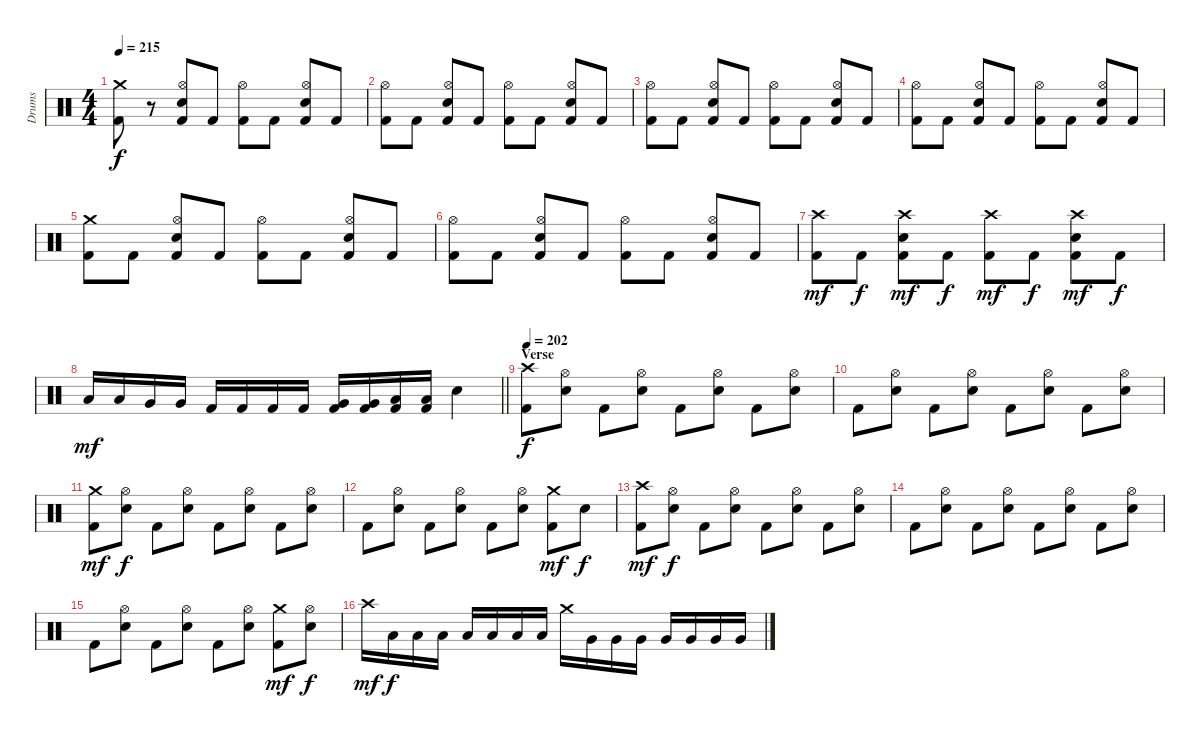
\track ("Drums" "Drums") {instrument percussion}
\staff {score}
\articulation defaults
\ts (4 4)
\tempo 215
\clef neutral
\ks c
("Crash medium (hit)" "Kick (hit) 2").8{dy f} r.8 ("Hi-Hat (open)" "Snare (hit) 2" "Kick (hit) 2").8 "Kick (hit) 2".8 ("Hi-Hat (open)" "Kick (hit) 2").8 "Kick (hit) 2".8 ("Hi-Hat (open)" "Snare (hit) 2" "Kick (hit) 2").8 "Kick (hit) 2".8 |
("Hi-Hat (open)" "Kick (hit) 2").8 "Kick (hit) 2".8 ("Hi-Hat (open)" "Snare (hit) 2" "Kick (hit) 2").8 "Kick (hit) 2".8 ("Hi-Hat (open)" "Kick (hit) 2").8 "Kick (hit) 2".8 ("Hi-Hat (open)" "Snare (hit) 2" "Kick (hit) 2").8 "Kick (hit) 2".8 |
("Hi-Hat (open)" "Kick (hit) 2").8 "Kick (hit) 2".8 ("Hi-Hat (open)" "Snare (hit) 2" "Kick (hit) 2").8 "Kick (hit) 2".8 ("Hi-Hat (open)" "Kick (hit) 2").8 "Kick (hit) 2".8 ("Hi-Hat (open)" "Snare (hit) 2" "Kick (hit) 2").8 "Kick (hit) 2".8 |
("Hi-Hat (open)" "Kick (hit) 2").8 "Kick (hit) 2".8 ("Hi-Hat (open)" "Snare (hit) 2" "Kick (hit) 2").8 "Kick (hit) 2".8 ("Hi-Hat (open)" "Kick (hit) 2").8 "Kick (hit) 2".8 ("Hi-Hat (open)" "Snare (hit) 2" "Kick (hit) 2").8 "Kick (hit) 2".8 |
("Crash medium (hit)" "Kick (hit) 2").8 "Kick (hit) 2".8 ("Hi-Hat (open)" "Snare (hit) 2" "Kick (hit) 2").8 "Kick (hit) 2".8 ("Hi-Hat (open)" "Kick (hit) 2").8 "Kick (hit) 2".8 ("Hi-Hat (open)" "Snare (hit) 2" "Kick (hit) 2").8 "Kick (hit) 2".8 |
("Hi-Hat (open)" "Kick (hit) 2").8 "Kick (hit) 2".8 ("Hi-Hat (open)" "Snare (hit) 2" "Kick (hit) 2").8 "Kick (hit) 2".8 ("Hi-Hat (open)" "Kick (hit) 2").8 "Kick (hit) 2".8 ("Hi-Hat (open)" "Snare (hit) 2" "Kick (hit) 2").8 "Kick (hit) 2".8 |
("Crash high (hit)" "Kick (hit) 2").8{dy mf} "Kick (hit) 2".8{dy f} ("Crash high (hit)" "Snare (hit) 2" "Kick (hit) 2").8{dy mf} "Kick (hit) 2".8{dy f} ("Crash high (hit)" "Kick (hit) 2").8{dy mf} "Kick (hit) 2".8{dy f} ("Crash high (hit)" "Snare (hit) 2" "Kick (hit) 2").8{dy mf} "Kick (hit) 2".8{dy f} |
\barLineRight lightlight "Low Tom (hit)".16{dy mf} "Low Tom (hit)".16 "Very Low Tom (hit)".16 "Very Low Tom (hit)".16 "Kick (hit) 2".16 "Kick (hit) 2".16 "Kick (hit) 2".16 "Kick (hit) 2".16
("Very Low Tom (hit)" "Kick (hit) 2").16 ("Very Low Tom (hit)" "Kick (hit) 2").16 ("Low Floor Tom (hit)" "Kick (hit) 2").16 ("Low Floor Tom (hit)" "Kick (hit) 2").16 "Snare (hit) 2".4 |
\section ("" "Verse")
\tempo 202
("Crash high (hit)" "Kick (hit) 2").8{dy f} ("Hi-Hat (open)" "Snare (hit) 2").8 "Kick (hit) 2".8 ("Hi-Hat (open)" "Snare (hit) 2").8 "Kick (hit) 2".8 ("Hi-Hat (open)" "Snare (hit) 2").8 "Kick (hit) 2".8 ("Hi-Hat (open)" "Snare (hit) 2").8 |
"Kick (hit) 2".8 ("Hi-Hat (open)" "Snare (hit) 2").8 "Kick (hit) 2".8 ("Hi-Hat (open)" "Snare (hit) 2").8 "Kick (hit) 2".8 ("Hi-Hat (open)" "Snare (hit) 2").8 "Kick (hit) 2".8 ("Hi-Hat (open)" "Snare (hit) 2").8 |
("Crash medium (hit)" "Kick (hit) 2").8{dy mf} ("Hi-Hat (open)" "Snare (hit) 2").8{dy f} "Kick (hit) 2".8 ("Hi-Hat (open)" "Snare (hit) 2").8 "Kick (hit) 2".8 ("Hi-Hat (open)" "Snare (hit) 2").8 "Kick (hit) 2".8 ("Hi-Hat (open)" "Snare (hit) 2").8 |
"Kick (hit) 2".8 ("Hi-Hat (open)" "Snare (hit) 2").8 "Kick (hit) 2".8 ("Hi-Hat (open)" "Snare (hit) 2").8 "Kick (hit) 2".8 ("Hi-Hat (open)" "Snare (hit) 2").8 ("Crash medium (hit)" "Kick (hit) 2").8{dy mf} "Snare (hit) 2".8{dy f} |
("Crash high (hit)" "Kick (hit) 2").8{dy mf} ("Hi-Hat (open)" "Snare (hit) 2").8{dy f} "Kick (hit) 2".8 ("Hi-Hat (open)" "Snare (hit) 2").8 "Kick (hit) 2".8 ("Hi-Hat (open)" "Snare (hit) 2").8 "Kick (hit) 2".8 ("Hi-Hat (open)" "Snare (hit) 2").8 |
"Kick (hit) 2".8 ("Hi-Hat (open)" "Snare (hit) 2").8 "Kick (hit) 2".8 ("Hi-Hat (open)" "Snare (hit) 2").8 "Kick (hit) 2".8 ("Hi-Hat (open)" "Snare (hit) 2").8 "Kick (hit) 2".8 ("Hi-Hat (open)" "Snare (hit) 2").8 |
"Kick (hit) 2".8 ("Hi-Hat (open)" "Snare (hit) 2").8 "Kick (hit) 2".8 ("Hi-Hat (open)" "Snare (hit) 2").8 "Kick (hit) 2".8 ("Hi-Hat (open)" "Snare (hit) 2").8 ("Crash medium (hit)" "Kick (hit) 2").8{dy mf} ("Hi-Hat (open)" "Snare (hit) 2").8{dy f} |
"Crash high (hit)".16{dy mf} "Low Tom (hit)".16{dy f} "Low Tom (hit)".16 "Low Tom (hit)".16 "Low Tom (hit)".16 "Low Tom (hit)".16 "Low Tom (hit)".16 "Low Tom (hit)".16 "Crash medium (hit)".16 "Very Low Tom (hit)".16 "Very Low Tom (hit)".16 "Very Low Tom (hit)".16 "Very Low Tom (hit)".16 "Very Low Tom (hit)".16 "Very Low Tom (hit)".16 "Very Low Tom (hit)".16
